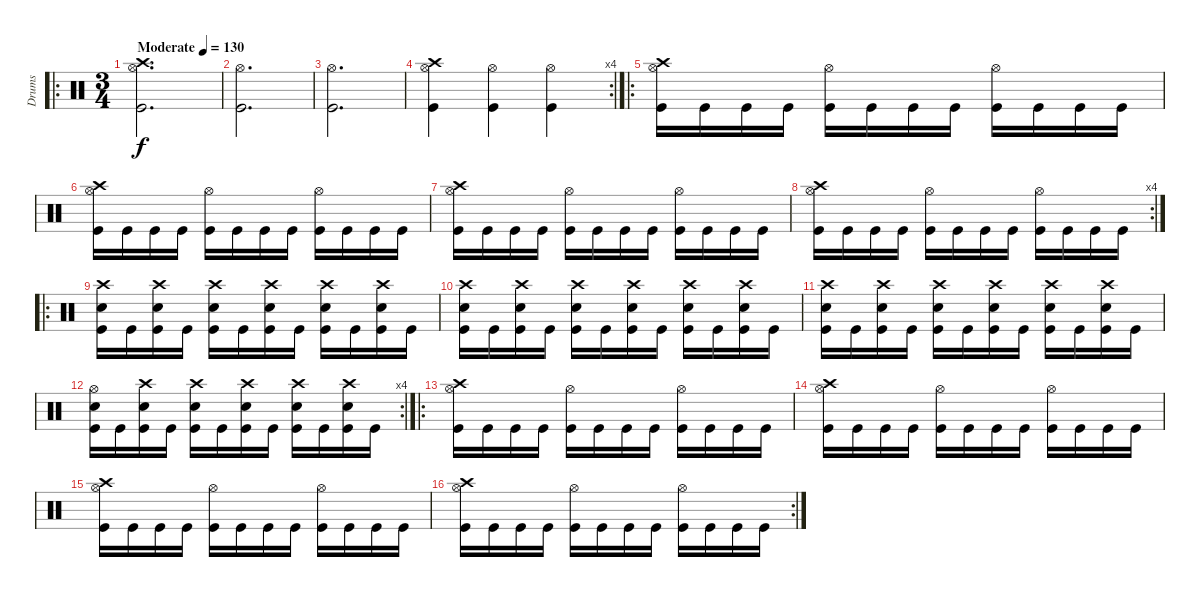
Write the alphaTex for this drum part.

\track ("Drums" "Drums") {instrument percussion}
\staff {score}
\articulation defaults
\ro
\ts (3 4)
\tempo (130 "Moderate")
\clef neutral
\ks c
("Hi-Hat (open)" "Crash high (hit)" "Kick (hit)").2{d dy f} |
("Hi-Hat (open)" "Kick (hit)").2{d} |
("Hi-Hat (open)" "Kick (hit)").2{d} |
\rc 4
("Hi-Hat (open)" "Crash high (hit)" "Kick (hit)").4 ("Hi-Hat (open)" "Kick (hit)").4 ("Hi-Hat (open)" "Kick (hit)").4 |
\ro
("Hi-Hat (open)" "Crash high (hit)" "Kick (hit)").16 "Kick (hit)".16 "Kick (hit)".16 "Kick (hit)".16 ("Hi-Hat (open)" "Kick (hit)").16 "Kick (hit)".16 "Kick (hit)".16 "Kick (hit)".16 ("Hi-Hat (open)" "Kick (hit)").16 "Kick (hit)".16 "Kick (hit)".16 "Kick (hit)".16 |
("Hi-Hat (open)" "Crash high (hit)" "Kick (hit)").16 "Kick (hit)".16 "Kick (hit)".16 "Kick (hit)".16 ("Hi-Hat (open)" "Kick (hit)").16 "Kick (hit)".16 "Kick (hit)".16 "Kick (hit)".16 ("Hi-Hat (open)" "Kick (hit)").16 "Kick (hit)".16 "Kick (hit)".16 "Kick (hit)".16 |
("Hi-Hat (open)" "Crash high (hit)" "Kick (hit)").16 "Kick (hit)".16 "Kick (hit)".16 "Kick (hit)".16 ("Hi-Hat (open)" "Kick (hit)").16 "Kick (hit)".16 "Kick (hit)".16 "Kick (hit)".16 ("Hi-Hat (open)" "Kick (hit)").16 "Kick (hit)".16 "Kick (hit)".16 "Kick (hit)".16 |
\rc 4
("Hi-Hat (open)" "Crash high (hit)" "Kick (hit)").16 "Kick (hit)".16 "Kick (hit)".16 "Kick (hit)".16 ("Hi-Hat (open)" "Kick (hit)").16 "Kick (hit)".16 "Kick (hit)".16 "Kick (hit)".16 ("Hi-Hat (open)" "Kick (hit)").16 "Kick (hit)".16 "Kick (hit)".16 "Kick (hit)".16 |
\ro
("Crash high (hit)" "Electric Snare (hit)" "Kick (hit)").16 "Kick (hit)".16 ("Crash high (hit)" "Electric Snare (hit)" "Kick (hit)").16 "Kick (hit)".16 ("Crash high (hit)" "Electric Snare (hit)" "Kick (hit)").16 "Kick (hit)".16 ("Crash high (hit)" "Electric Snare (hit)" "Kick (hit)").16 "Kick (hit)".16 ("Crash high (hit)" "Electric Snare (hit)" "Kick (hit)").16 "Kick (hit)".16 ("Crash high (hit)" "Electric Snare (hit)" "Kick (hit)").16 "Kick (hit)".16 |
("Crash high (hit)" "Electric Snare (hit)" "Kick (hit)").16 "Kick (hit)".16 ("Crash high (hit)" "Electric Snare (hit)" "Kick (hit)").16 "Kick (hit)".16 ("Crash high (hit)" "Electric Snare (hit)" "Kick (hit)").16 "Kick (hit)".16 ("Crash high (hit)" "Electric Snare (hit)" "Kick (hit)").16 "Kick (hit)".16 ("Crash high (hit)" "Electric Snare (hit)" "Kick (hit)").16 "Kick (hit)".16 ("Crash high (hit)" "Electric Snare (hit)" "Kick (hit)").16 "Kick (hit)".16 |
("Crash high (hit)" "Electric Snare (hit)" "Kick (hit)").16 "Kick (hit)".16 ("Crash high (hit)" "Electric Snare (hit)" "Kick (hit)").16 "Kick (hit)".16 ("Crash high (hit)" "Electric Snare (hit)" "Kick (hit)").16 "Kick (hit)".16 ("Crash high (hit)" "Electric Snare (hit)" "Kick (hit)").16 "Kick (hit)".16 ("Crash high (hit)" "Electric Snare (hit)" "Kick (hit)").16 "Kick (hit)".16 ("Crash high (hit)" "Electric Snare (hit)" "Kick (hit)").16 "Kick (hit)".16 |
\rc 4
("Hi-Hat (open)" "Electric Snare (hit)" "Kick (hit)").16 "Kick (hit)".16 ("Crash high (hit)" "Electric Snare (hit)" "Kick (hit)").16 "Kick (hit)".16 ("Crash high (hit)" "Electric Snare (hit)" "Kick (hit)").16 "Kick (hit)".16 ("Crash high (hit)" "Electric Snare (hit)" "Kick (hit)").16 "Kick (hit)".16 ("Crash high (hit)" "Electric Snare (hit)" "Kick (hit)").16 "Kick (hit)".16 ("Crash high (hit)" "Electric Snare (hit)" "Kick (hit)").16 "Kick (hit)".16 |
\ro
("Hi-Hat (open)" "Crash high (hit)" "Kick (hit)").16 "Kick (hit)".16 "Kick (hit)".16 "Kick (hit)".16 ("Hi-Hat (open)" "Kick (hit)").16 "Kick (hit)".16 "Kick (hit)".16 "Kick (hit)".16 ("Hi-Hat (open)" "Kick (hit)").16 "Kick (hit)".16 "Kick (hit)".16 "Kick (hit)".16 |
("Hi-Hat (open)" "Crash high (hit)" "Kick (hit)").16 "Kick (hit)".16 "Kick (hit)".16 "Kick (hit)".16 ("Hi-Hat (open)" "Kick (hit)").16 "Kick (hit)".16 "Kick (hit)".16 "Kick (hit)".16 ("Hi-Hat (open)" "Kick (hit)").16 "Kick (hit)".16 "Kick (hit)".16 "Kick (hit)".16 |
("Hi-Hat (open)" "Crash high (hit)" "Kick (hit)").16 "Kick (hit)".16 "Kick (hit)".16 "Kick (hit)".16 ("Hi-Hat (open)" "Kick (hit)").16 "Kick (hit)".16 "Kick (hit)".16 "Kick (hit)".16 ("Hi-Hat (open)" "Kick (hit)").16 "Kick (hit)".16 "Kick (hit)".16 "Kick (hit)".16 |
\rc 2
("Hi-Hat (open)" "Crash high (hit)" "Kick (hit)").16 "Kick (hit)".16 "Kick (hit)".16 "Kick (hit)".16 ("Hi-Hat (open)" "Kick (hit)").16 "Kick (hit)".16 "Kick (hit)".16 "Kick (hit)".16 ("Hi-Hat (open)" "Kick (hit)").16 "Kick (hit)".16 "Kick (hit)".16 "Kick (hit)".16
